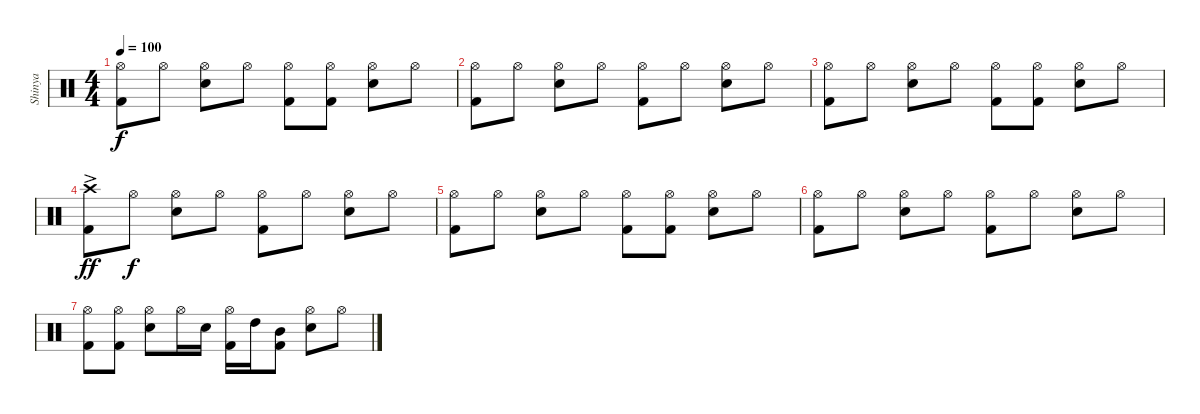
\track ("Shinya" "Shinya") {instrument percussion}
\staff {score}
\articulation defaults
\ts (4 4)
\tempo 100
\clef neutral
\ks c
("Hi-Hat (open)" "Kick (hit) 2").8{dy f} "Hi-Hat (open)".8 ("Hi-Hat (open)" "Snare (hit) 2").8 "Hi-Hat (open)".8 ("Hi-Hat (open)" "Kick (hit) 2").8 ("Hi-Hat (open)" "Kick (hit) 2").8 ("Hi-Hat (open)" "Snare (hit) 2").8 "Hi-Hat (open)".8 |
("Hi-Hat (open)" "Kick (hit) 2").8 "Hi-Hat (open)".8 ("Hi-Hat (open)" "Snare (hit) 2").8 "Hi-Hat (open)".8 ("Hi-Hat (open)" "Kick (hit) 2").8 "Hi-Hat (open)".8 ("Hi-Hat (open)" "Snare (hit) 2").8 "Hi-Hat (open)".8 |
("Hi-Hat (open)" "Kick (hit) 2").8 "Hi-Hat (open)".8 ("Hi-Hat (open)" "Snare (hit) 2").8 "Hi-Hat (open)".8 ("Hi-Hat (open)" "Kick (hit) 2").8 ("Hi-Hat (open)" "Kick (hit) 2").8 ("Hi-Hat (open)" "Snare (hit) 2").8 "Hi-Hat (open)".8 |
("Crash high (hit)"{ac} "Kick (hit) 2").8{dy ff} "Hi-Hat (open)".8{dy f} ("Hi-Hat (open)" "Snare (hit) 2").8 "Hi-Hat (open)".8 ("Hi-Hat (open)" "Kick (hit) 2").8 "Hi-Hat (open)".8 ("Hi-Hat (open)" "Snare (hit) 2").8 "Hi-Hat (open)".8 |
("Hi-Hat (open)" "Kick (hit) 2").8 "Hi-Hat (open)".8 ("Hi-Hat (open)" "Snare (hit) 2").8 "Hi-Hat (open)".8 ("Hi-Hat (open)" "Kick (hit) 2").8 ("Hi-Hat (open)" "Kick (hit) 2").8 ("Hi-Hat (open)" "Snare (hit) 2").8 "Hi-Hat (open)".8 |
("Hi-Hat (open)" "Kick (hit) 2").8 "Hi-Hat (open)".8 ("Hi-Hat (open)" "Snare (hit) 2").8 "Hi-Hat (open)".8 ("Hi-Hat (open)" "Kick (hit) 2").8 "Hi-Hat (open)".8 ("Hi-Hat (open)" "Snare (hit) 2").8 "Hi-Hat (open)".8 |
("Hi-Hat (open)" "Kick (hit) 2").8 ("Hi-Hat (open)" "Kick (hit) 2").8 ("Hi-Hat (open)" "Snare (hit) 2").8 "Hi-Hat (open)".16 "Snare (hit) 2".16 ("Hi-Hat (open)" "Kick (hit) 2").16 "High Tom (hit)".16 ("Mid Tom (hit)" "Kick (hit) 2").8 ("Hi-Hat (open)" "Snare (hit) 2").8 "Hi-Hat (open)".8
